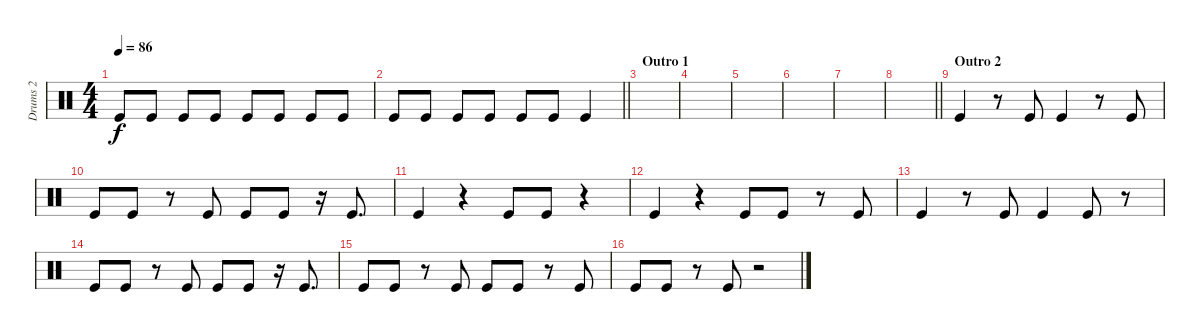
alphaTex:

\track ("Drums 2" "Drums 2") {instrument percussion}
\staff {score}
\articulation defaults
\ts (4 4)
\tempo 86
\clef neutral
\ks c "Kick (hit)".8{dy f} "Kick (hit)".8 "Kick (hit)".8 "Kick (hit)".8 "Kick (hit)".8 "Kick (hit)".8 "Kick (hit)".8 "Kick (hit)".8
|
\barLineRight lightlight "Kick (hit)".8 "Kick (hit)".8 "Kick (hit)".8 "Kick (hit)".8 "Kick (hit)".8 "Kick (hit)".8 "Kick (hit)".4
|
\section ("" "Outro 1")
|
|
|
|
|
\barLineRight lightlight
|
\section ("" "Outro 2")
"Kick (hit)".4 r.8 "Kick (hit)".8 "Kick (hit)".4 r.8 "Kick (hit)".8 |
"Kick (hit)".8 "Kick (hit)".8 r.8 "Kick (hit)".8 "Kick (hit)".8 "Kick (hit)".8 r.16 "Kick (hit)".8{d} |
"Kick (hit)".4 r.4 "Kick (hit)".8 "Kick (hit)".8 r.4 |
"Kick (hit)".4 r.4 "Kick (hit)".8 "Kick (hit)".8 r.8 "Kick (hit)".8 |
"Kick (hit)".4 r.8 "Kick (hit)".8 "Kick (hit)".4 "Kick (hit)".8 r.8 |
"Kick (hit)".8 "Kick (hit)".8 r.8 "Kick (hit)".8 "Kick (hit)".8 "Kick (hit)".8 r.16 "Kick (hit)".8{d} |
"Kick (hit)".8 "Kick (hit)".8 r.8 "Kick (hit)".8 "Kick (hit)".8 "Kick (hit)".8 r.8 "Kick (hit)".8 |
"Kick (hit)".8 "Kick (hit)".8 r.8 "Kick (hit)".8 r.2
